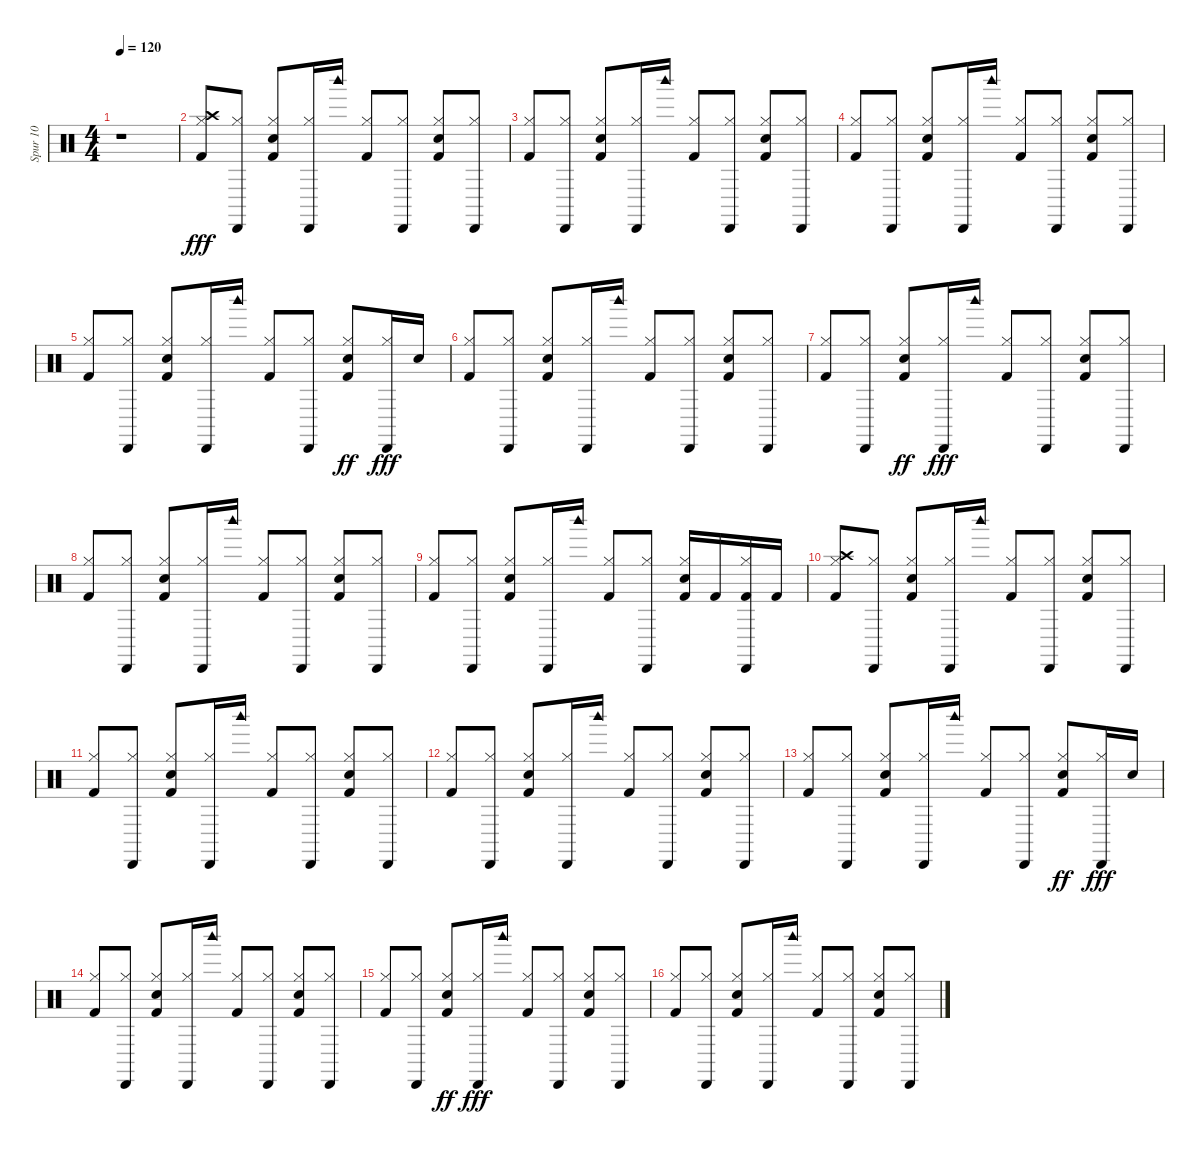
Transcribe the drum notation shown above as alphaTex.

\track ("Spur 10" "Spur 10") {instrument percussion}
\staff {score}
\articulation defaults
\ts (4 4)
\tempo 120
\clef neutral
\ks c
r.1{dy fff} |
("Kick (hit) 2" "Hi-Hat (closed)" "Crash high (hit)").8 ("Cabasa (hit)" "Hi-Hat (closed)").8 ("Hand Clap (hit)" "Hi-Hat (closed)" "Kick (hit) 2").8 ("Hi-Hat (closed)" "Cabasa (hit)").16 "Woodblock high (hit)".16 ("Kick (hit) 2" "Hi-Hat (closed)").8 ("Hi-Hat (closed)" "Cabasa (hit)").8 ("Hand Clap (hit)" "Kick (hit) 2" "Hi-Hat (closed)").8 ("Hi-Hat (closed)" "Cabasa (hit)").8 |
("Hi-Hat (closed)" "Kick (hit) 2").8 ("Hi-Hat (closed)" "Cabasa (hit)").8 ("Hand Clap (hit)" "Kick (hit) 2" "Hi-Hat (closed)").8 ("Hi-Hat (closed)" "Cabasa (hit)").16 "Woodblock high (hit)".16 ("Hi-Hat (closed)" "Kick (hit) 2").8 ("Hi-Hat (closed)" "Cabasa (hit)").8 ("Hand Clap (hit)" "Hi-Hat (closed)" "Kick (hit) 2").8 ("Hi-Hat (closed)" "Cabasa (hit)").8 |
("Kick (hit) 2" "Hi-Hat (closed)").8 ("Hi-Hat (closed)" "Cabasa (hit)").8 ("Kick (hit) 2" "Hand Clap (hit)" "Hi-Hat (closed)").8 ("Cabasa (hit)" "Hi-Hat (closed)").16 "Woodblock high (hit)".16 ("Hi-Hat (closed)" "Kick (hit) 2").8 ("Cabasa (hit)" "Hi-Hat (closed)").8 ("Hand Clap (hit)" "Hi-Hat (closed)" "Kick (hit) 2").8 ("Hi-Hat (closed)" "Cabasa (hit)").8 |
("Kick (hit) 2" "Hi-Hat (closed)").8 ("Hi-Hat (closed)" "Cabasa (hit)").8 ("Hand Clap (hit)" "Kick (hit) 2" "Hi-Hat (closed)").8 ("Cabasa (hit)" "Hi-Hat (closed)").16 "Woodblock high (hit)".16 ("Kick (hit) 2" "Hi-Hat (closed)").8 ("Cabasa (hit)" "Hi-Hat (closed)").8 ("Hi-Hat (closed)" "Kick (hit) 2" "Hand Clap (hit)").8{dy ff} ("Hi-Hat (closed)" "Cabasa (hit)").16{dy fff} "Hand Clap (hit)".16 |
("Kick (hit) 2" "Hi-Hat (closed)").8 ("Cabasa (hit)" "Hi-Hat (closed)").8 ("Hi-Hat (closed)" "Hand Clap (hit)" "Kick (hit) 2").8 ("Cabasa (hit)" "Hi-Hat (closed)").16 "Woodblock high (hit)".16 ("Hi-Hat (closed)" "Kick (hit) 2").8 ("Hi-Hat (closed)" "Cabasa (hit)").8 ("Hand Clap (hit)" "Kick (hit) 2" "Hi-Hat (closed)").8 ("Hi-Hat (closed)" "Cabasa (hit)").8 |
("Hi-Hat (closed)" "Kick (hit) 2").8 ("Cabasa (hit)" "Hi-Hat (closed)").8 ("Kick (hit) 2" "Hi-Hat (closed)" "Hand Clap (hit)").8{dy ff} ("Hi-Hat (closed)" "Cabasa (hit)").16{dy fff} "Woodblock high (hit)".16 ("Kick (hit) 2" "Hi-Hat (closed)").8 ("Cabasa (hit)" "Hi-Hat (closed)").8 ("Kick (hit) 2" "Hand Clap (hit)" "Hi-Hat (closed)").8 ("Hi-Hat (closed)" "Cabasa (hit)").8 |
("Kick (hit) 2" "Hi-Hat (closed)").8 ("Cabasa (hit)" "Hi-Hat (closed)").8 ("Hand Clap (hit)" "Hi-Hat (closed)" "Kick (hit) 2").8 ("Hi-Hat (closed)" "Cabasa (hit)").16 "Woodblock high (hit)".16 ("Kick (hit) 2" "Hi-Hat (closed)").8 ("Cabasa (hit)" "Hi-Hat (closed)").8 ("Kick (hit) 2" "Hand Clap (hit)" "Hi-Hat (closed)").8 ("Hi-Hat (closed)" "Cabasa (hit)").8 |
("Kick (hit) 2" "Hi-Hat (closed)").8 ("Cabasa (hit)" "Hi-Hat (closed)").8 ("Hand Clap (hit)" "Hi-Hat (closed)" "Kick (hit) 2").8 ("Hi-Hat (closed)" "Cabasa (hit)").16 "Woodblock high (hit)".16 ("Kick (hit) 2" "Hi-Hat (closed)").8 ("Cabasa (hit)" "Hi-Hat (closed)").8 ("Kick (hit) 2" "Hand Clap (hit)" "Hi-Hat (closed)").16 "Kick (hit) 2".16 ("Kick (hit) 2" "Hi-Hat (closed)" "Cabasa (hit)").16 "Kick (hit) 2".16 |
("Kick (hit) 2" "Hi-Hat (closed)" "Crash high (hit)").8 ("Cabasa (hit)" "Hi-Hat (closed)").8 ("Hand Clap (hit)" "Hi-Hat (closed)" "Kick (hit) 2").8 ("Hi-Hat (closed)" "Cabasa (hit)").16 "Woodblock high (hit)".16 ("Kick (hit) 2" "Hi-Hat (closed)").8 ("Hi-Hat (closed)" "Cabasa (hit)").8 ("Hand Clap (hit)" "Kick (hit) 2" "Hi-Hat (closed)").8 ("Hi-Hat (closed)" "Cabasa (hit)").8 |
("Hi-Hat (closed)" "Kick (hit) 2").8 ("Hi-Hat (closed)" "Cabasa (hit)").8 ("Hand Clap (hit)" "Kick (hit) 2" "Hi-Hat (closed)").8 ("Hi-Hat (closed)" "Cabasa (hit)").16 "Woodblock high (hit)".16 ("Hi-Hat (closed)" "Kick (hit) 2").8 ("Hi-Hat (closed)" "Cabasa (hit)").8 ("Hand Clap (hit)" "Hi-Hat (closed)" "Kick (hit) 2").8 ("Hi-Hat (closed)" "Cabasa (hit)").8 |
("Kick (hit) 2" "Hi-Hat (closed)").8 ("Hi-Hat (closed)" "Cabasa (hit)").8 ("Kick (hit) 2" "Hand Clap (hit)" "Hi-Hat (closed)").8 ("Cabasa (hit)" "Hi-Hat (closed)").16 "Woodblock high (hit)".16 ("Hi-Hat (closed)" "Kick (hit) 2").8 ("Cabasa (hit)" "Hi-Hat (closed)").8 ("Hand Clap (hit)" "Hi-Hat (closed)" "Kick (hit) 2").8 ("Hi-Hat (closed)" "Cabasa (hit)").8 |
("Kick (hit) 2" "Hi-Hat (closed)").8 ("Hi-Hat (closed)" "Cabasa (hit)").8 ("Hand Clap (hit)" "Kick (hit) 2" "Hi-Hat (closed)").8 ("Cabasa (hit)" "Hi-Hat (closed)").16 "Woodblock high (hit)".16 ("Kick (hit) 2" "Hi-Hat (closed)").8 ("Cabasa (hit)" "Hi-Hat (closed)").8 ("Hi-Hat (closed)" "Kick (hit) 2" "Hand Clap (hit)").8{dy ff} ("Hi-Hat (closed)" "Cabasa (hit)").16{dy fff} "Hand Clap (hit)".16 |
("Kick (hit) 2" "Hi-Hat (closed)").8 ("Cabasa (hit)" "Hi-Hat (closed)").8 ("Hi-Hat (closed)" "Hand Clap (hit)" "Kick (hit) 2").8 ("Cabasa (hit)" "Hi-Hat (closed)").16 "Woodblock high (hit)".16 ("Hi-Hat (closed)" "Kick (hit) 2").8 ("Hi-Hat (closed)" "Cabasa (hit)").8 ("Hand Clap (hit)" "Kick (hit) 2" "Hi-Hat (closed)").8 ("Hi-Hat (closed)" "Cabasa (hit)").8 |
("Hi-Hat (closed)" "Kick (hit) 2").8 ("Cabasa (hit)" "Hi-Hat (closed)").8 ("Kick (hit) 2" "Hi-Hat (closed)" "Hand Clap (hit)").8{dy ff} ("Hi-Hat (closed)" "Cabasa (hit)").16{dy fff} "Woodblock high (hit)".16 ("Kick (hit) 2" "Hi-Hat (closed)").8 ("Cabasa (hit)" "Hi-Hat (closed)").8 ("Kick (hit) 2" "Hand Clap (hit)" "Hi-Hat (closed)").8 ("Hi-Hat (closed)" "Cabasa (hit)").8 |
("Kick (hit) 2" "Hi-Hat (closed)").8 ("Cabasa (hit)" "Hi-Hat (closed)").8 ("Hand Clap (hit)" "Hi-Hat (closed)" "Kick (hit) 2").8 ("Hi-Hat (closed)" "Cabasa (hit)").16 "Woodblock high (hit)".16 ("Kick (hit) 2" "Hi-Hat (closed)").8 ("Cabasa (hit)" "Hi-Hat (closed)").8 ("Kick (hit) 2" "Hand Clap (hit)" "Hi-Hat (closed)").8 ("Hi-Hat (closed)" "Cabasa (hit)").8
